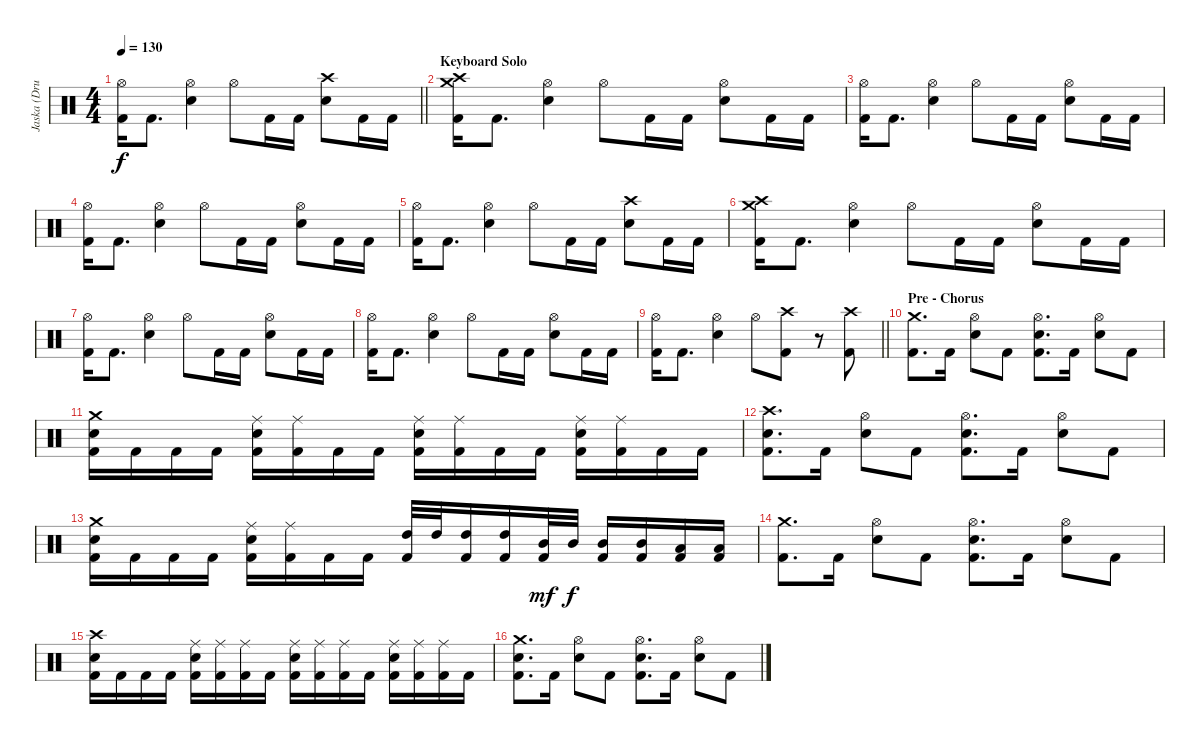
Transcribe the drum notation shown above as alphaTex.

\track ("Jaska (Drums)" "Jaska (Dru") {instrument percussion}
\staff {score}
\articulation defaults
\ts (4 4)
\tempo 130
\clef neutral
\barLineRight lightlight
\ks c
("Hi-Hat (open)" "Kick (hit) 2").16{dy f} "Kick (hit) 2".8{d} ("Hi-Hat (open)" "Electric Snare (hit)").4 "Hi-Hat (open)".8 "Kick (hit) 2".16 "Kick (hit) 2".16 ("Crash high (hit)" "Electric Snare (hit)").8 "Kick (hit) 2".16 "Kick (hit) 2".16 |
\section ("" "Keyboard Solo")
("Crash medium (hit)" "Crash high (hit)" "Kick (hit) 2").16 "Kick (hit) 2".8{d} ("Hi-Hat (open)" "Electric Snare (hit)").4 "Hi-Hat (open)".8 "Kick (hit) 2".16 "Kick (hit) 2".16 ("Hi-Hat (open)" "Electric Snare (hit)").8 "Kick (hit) 2".16 "Kick (hit) 2".16 |
("Hi-Hat (open)" "Kick (hit) 2").16 "Kick (hit) 2".8{d} ("Hi-Hat (open)" "Electric Snare (hit)").4 "Hi-Hat (open)".8 "Kick (hit) 2".16 "Kick (hit) 2".16 ("Hi-Hat (open)" "Electric Snare (hit)").8 "Kick (hit) 2".16 "Kick (hit) 2".16 |
("Hi-Hat (open)" "Kick (hit) 2").16 "Kick (hit) 2".8{d} ("Hi-Hat (open)" "Electric Snare (hit)").4 "Hi-Hat (open)".8 "Kick (hit) 2".16 "Kick (hit) 2".16 ("Hi-Hat (open)" "Electric Snare (hit)").8 "Kick (hit) 2".16 "Kick (hit) 2".16 |
("Hi-Hat (open)" "Kick (hit) 2").16 "Kick (hit) 2".8{d} ("Hi-Hat (open)" "Electric Snare (hit)").4 "Hi-Hat (open)".8 "Kick (hit) 2".16 "Kick (hit) 2".16 ("Crash high (hit)" "Electric Snare (hit)").8 "Kick (hit) 2".16 "Kick (hit) 2".16 |
("Crash medium (hit)" "Crash high (hit)" "Kick (hit) 2").16 "Kick (hit) 2".8{d} ("Hi-Hat (open)" "Electric Snare (hit)").4 "Hi-Hat (open)".8 "Kick (hit) 2".16 "Kick (hit) 2".16 ("Hi-Hat (open)" "Electric Snare (hit)").8 "Kick (hit) 2".16 "Kick (hit) 2".16 |
("Hi-Hat (open)" "Kick (hit) 2").16 "Kick (hit) 2".8{d} ("Hi-Hat (open)" "Electric Snare (hit)").4 "Hi-Hat (open)".8 "Kick (hit) 2".16 "Kick (hit) 2".16 ("Hi-Hat (open)" "Electric Snare (hit)").8 "Kick (hit) 2".16 "Kick (hit) 2".16 |
("Hi-Hat (open)" "Kick (hit) 2").16 "Kick (hit) 2".8{d} ("Hi-Hat (open)" "Electric Snare (hit)").4 "Hi-Hat (open)".8 "Kick (hit) 2".16 "Kick (hit) 2".16 ("Hi-Hat (open)" "Electric Snare (hit)").8 "Kick (hit) 2".16 "Kick (hit) 2".16 |
\barLineRight lightlight
("Hi-Hat (open)" "Kick (hit) 2").16 "Kick (hit) 2".8{d} ("Hi-Hat (open)" "Electric Snare (hit)").4 "Hi-Hat (open)".8 ("Crash high (hit)" "Kick (hit) 2").8 r.8{volume 0} ("Crash high (hit)" "Kick (hit) 2").8{volume 16} |
\section ("" "Pre - Chorus")
("Crash medium (hit)" "Kick (hit) 2").8{d} "Kick (hit) 2".16 ("Hi-Hat (open)" "Electric Snare (hit)").8 "Kick (hit) 2".8 ("Hi-Hat (open)" "Electric Snare (hit)" "Kick (hit) 2").8{d} "Kick (hit) 2".16 ("Hi-Hat (open)" "Electric Snare (hit)").8 "Kick (hit) 2".8 |
("Crash medium (hit)" "Electric Snare (hit)" "Kick (hit) 2").16 "Kick (hit) 2".16 "Kick (hit) 2".16 "Kick (hit) 2".16 ("Ride (middle)" "Electric Snare (hit)" "Kick (hit) 2").16 ("Ride (middle)" "Kick (hit) 2").16 "Kick (hit) 2".16 "Kick (hit) 2".16 ("Ride (middle)" "Electric Snare (hit)" "Kick (hit) 2").16 ("Ride (middle)" "Kick (hit) 2").16 "Kick (hit) 2".16 "Kick (hit) 2".16 ("Ride (middle)" "Electric Snare (hit)" "Kick (hit) 2").16 ("Ride (middle)" "Kick (hit) 2").16 "Kick (hit) 2".16 "Kick (hit) 2".16 |
("Crash high (hit)" "Electric Snare (hit)" "Kick (hit) 2").8{d} "Kick (hit) 2".16 ("Hi-Hat (open)" "Electric Snare (hit)").8 "Kick (hit) 2".8 ("Hi-Hat (open)" "Electric Snare (hit)" "Kick (hit) 2").8{d} "Kick (hit) 2".16 ("Hi-Hat (open)" "Electric Snare (hit)").8 "Kick (hit) 2".8 |
("Crash medium (hit)" "Electric Snare (hit)" "Kick (hit) 2").16 "Kick (hit) 2".16 "Kick (hit) 2".16 "Kick (hit) 2".16 ("Ride (middle)" "Electric Snare (hit)" "Kick (hit) 2").16 ("Ride (middle)" "Kick (hit) 2").16 "Kick (hit) 2".16 "Kick (hit) 2".16 ("High Tom (hit)" "Kick (hit) 2").32 "High Tom (hit)".32 ("High Tom (hit)" "Kick (hit) 2").16 ("High Tom (hit)" "Kick (hit) 2").16 ("Mid Tom (hit)" "Kick (hit) 2").32{dy mf} "Mid Tom (hit)".32{dy f} ("Mid Tom (hit)" "Kick (hit) 2").16 ("Mid Tom (hit)" "Kick (hit) 2").16 ("Low Tom (hit)" "Kick (hit) 2").16 ("Low Tom (hit)" "Kick (hit) 2").16 |
("Crash medium (hit)" "Kick (hit) 2").8{d} "Kick (hit) 2".16 ("Hi-Hat (open)" "Electric Snare (hit)").8 "Kick (hit) 2".8 ("Hi-Hat (open)" "Electric Snare (hit)" "Kick (hit) 2").8{d} "Kick (hit) 2".16 ("Hi-Hat (open)" "Electric Snare (hit)").8 "Kick (hit) 2".8 |
("Crash high (hit)" "Electric Snare (hit)" "Kick (hit) 2").16 "Kick (hit) 2".16 "Kick (hit) 2".16 "Kick (hit) 2".16 ("Ride (middle)" "Electric Snare (hit)" "Kick (hit) 2").16 ("Ride (middle)" "Kick (hit) 2").16 ("Ride (middle)" "Kick (hit) 2").16 "Kick (hit) 2".16 ("Ride (middle)" "Electric Snare (hit)" "Kick (hit) 2").16 ("Ride (middle)" "Kick (hit) 2").16 ("Ride (middle)" "Kick (hit) 2").16 "Kick (hit) 2".16 ("Ride (middle)" "Electric Snare (hit)" "Kick (hit) 2").16 ("Ride (middle)" "Kick (hit) 2").16 ("Ride (middle)" "Kick (hit) 2").16 "Kick (hit) 2".16 |
("Crash medium (hit)" "Electric Snare (hit)" "Kick (hit) 2").8{d} "Kick (hit) 2".16 ("Hi-Hat (open)" "Electric Snare (hit)").8 "Kick (hit) 2".8 ("Hi-Hat (open)" "Electric Snare (hit)" "Kick (hit) 2").8{d} "Kick (hit) 2".16 ("Hi-Hat (open)" "Electric Snare (hit)").8 "Kick (hit) 2".8
